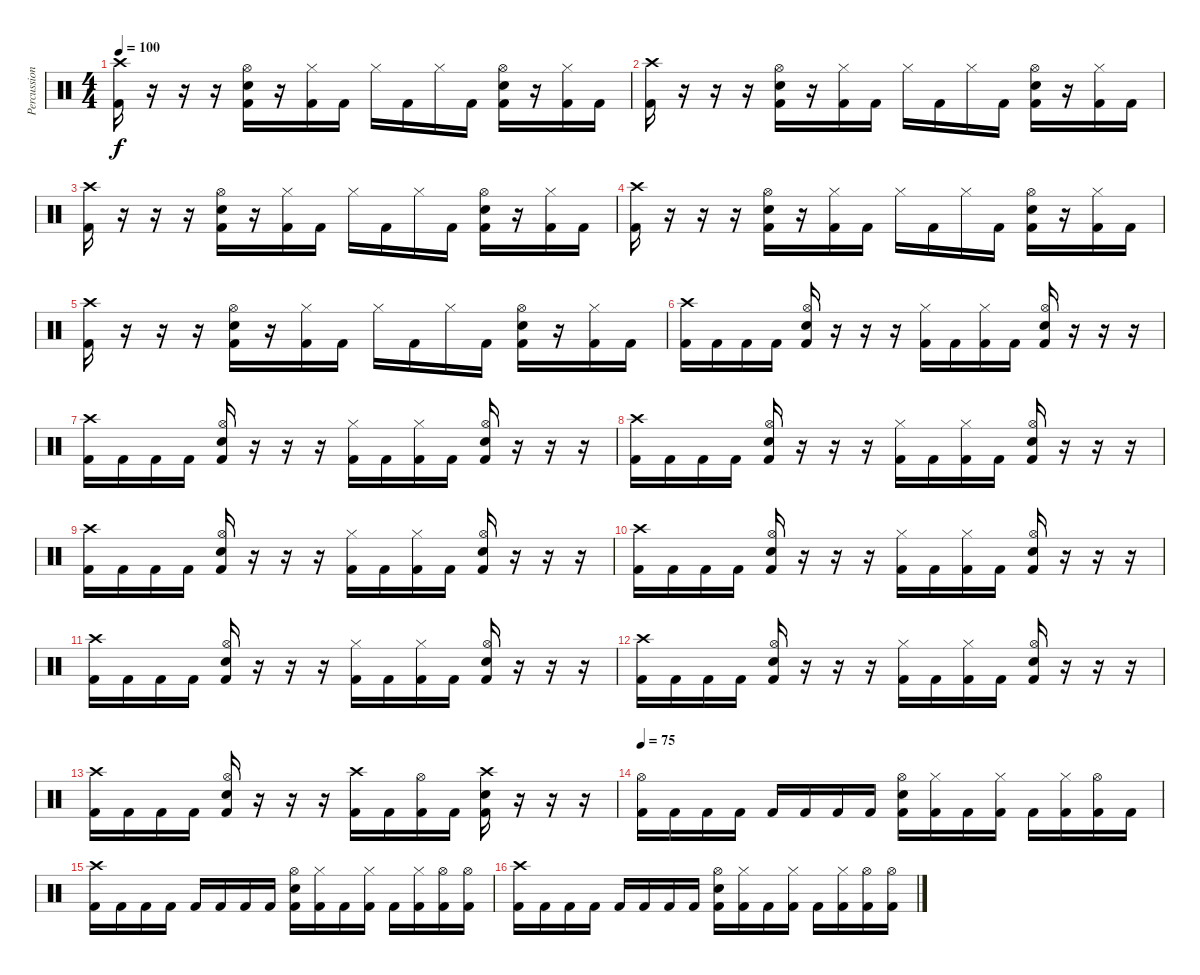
\track ("Percussions" "Percussion") {instrument percussion}
\staff {score}
\articulation defaults
\ts (4 4)
\tempo 100
\clef neutral
\ks c
("Crash high (hit)" "Kick (hit) 2").16{dy f} r.16 r.16 r.16 ("Hi-Hat (open)" "Kick (hit) 2" "Snare (hit) 2").16 r.16 ("Hi-Hat (closed)" "Kick (hit) 2").16 "Kick (hit) 2".16 "Hi-Hat (closed)".16 "Kick (hit) 2".16 "Hi-Hat (closed)".16 "Kick (hit) 2".16 ("Hi-Hat (open)" "Kick (hit) 2" "Snare (hit) 2").16 r.16 ("Hi-Hat (closed)" "Kick (hit) 2").16 "Kick (hit) 2".16 |
("Crash high (hit)" "Kick (hit) 2").16 r.16 r.16 r.16 ("Hi-Hat (open)" "Kick (hit) 2" "Snare (hit) 2").16 r.16 ("Hi-Hat (closed)" "Kick (hit) 2").16 "Kick (hit) 2".16 "Hi-Hat (closed)".16 "Kick (hit) 2".16 "Hi-Hat (closed)".16 "Kick (hit) 2".16 ("Hi-Hat (open)" "Kick (hit) 2" "Snare (hit) 2").16 r.16 ("Hi-Hat (closed)" "Kick (hit) 2").16 "Kick (hit) 2".16 |
("Crash high (hit)" "Kick (hit) 2").16 r.16 r.16 r.16 ("Hi-Hat (open)" "Kick (hit) 2" "Snare (hit) 2").16 r.16 ("Hi-Hat (closed)" "Kick (hit) 2").16 "Kick (hit) 2".16 "Hi-Hat (closed)".16 "Kick (hit) 2".16 "Hi-Hat (closed)".16 "Kick (hit) 2".16 ("Hi-Hat (open)" "Kick (hit) 2" "Snare (hit) 2").16 r.16 ("Hi-Hat (closed)" "Kick (hit) 2").16 "Kick (hit) 2".16 |
("Crash high (hit)" "Kick (hit) 2").16 r.16 r.16 r.16 ("Hi-Hat (open)" "Kick (hit) 2" "Snare (hit) 2").16 r.16 ("Hi-Hat (closed)" "Kick (hit) 2").16 "Kick (hit) 2".16 "Hi-Hat (closed)".16 "Kick (hit) 2".16 "Hi-Hat (closed)".16 "Kick (hit) 2".16 ("Hi-Hat (open)" "Kick (hit) 2" "Snare (hit) 2").16 r.16 ("Hi-Hat (closed)" "Kick (hit) 2").16 "Kick (hit) 2".16 |
("Crash high (hit)" "Kick (hit) 2").16 r.16 r.16 r.16 ("Hi-Hat (open)" "Kick (hit) 2" "Snare (hit) 2").16 r.16 ("Hi-Hat (closed)" "Kick (hit) 2").16 "Kick (hit) 2".16 "Hi-Hat (closed)".16 "Kick (hit) 2".16 "Hi-Hat (closed)".16 "Kick (hit) 2".16 ("Hi-Hat (open)" "Kick (hit) 2" "Snare (hit) 2").16 r.16 ("Hi-Hat (closed)" "Kick (hit) 2").16 "Kick (hit) 2".16 |
("Crash high (hit)" "Kick (hit) 2").16 "Kick (hit) 2".16 "Kick (hit) 2".16 "Kick (hit) 2".16 ("Hi-Hat (open)" "Kick (hit) 2" "Snare (hit) 2").16 r.16 r.16 r.16 ("Hi-Hat (closed)" "Kick (hit) 2").16 "Kick (hit) 2".16 ("Hi-Hat (closed)" "Kick (hit) 2").16 "Kick (hit) 2".16 ("Hi-Hat (open)" "Kick (hit) 2" "Snare (hit) 2").16 r.16 r.16 r.16 |
("Crash high (hit)" "Kick (hit) 2").16 "Kick (hit) 2".16 "Kick (hit) 2".16 "Kick (hit) 2".16 ("Hi-Hat (open)" "Kick (hit) 2" "Snare (hit) 2").16 r.16 r.16 r.16 ("Hi-Hat (closed)" "Kick (hit) 2").16 "Kick (hit) 2".16 ("Hi-Hat (closed)" "Kick (hit) 2").16 "Kick (hit) 2".16 ("Hi-Hat (open)" "Kick (hit) 2" "Snare (hit) 2").16 r.16 r.16 r.16 |
("Crash high (hit)" "Kick (hit) 2").16 "Kick (hit) 2".16 "Kick (hit) 2".16 "Kick (hit) 2".16 ("Hi-Hat (open)" "Kick (hit) 2" "Snare (hit) 2").16 r.16 r.16 r.16 ("Hi-Hat (closed)" "Kick (hit) 2").16 "Kick (hit) 2".16 ("Hi-Hat (closed)" "Kick (hit) 2").16 "Kick (hit) 2".16 ("Hi-Hat (open)" "Kick (hit) 2" "Snare (hit) 2").16 r.16 r.16 r.16 |
("Crash high (hit)" "Kick (hit) 2").16 "Kick (hit) 2".16 "Kick (hit) 2".16 "Kick (hit) 2".16 ("Hi-Hat (open)" "Kick (hit) 2" "Snare (hit) 2").16 r.16 r.16 r.16 ("Hi-Hat (closed)" "Kick (hit) 2").16 "Kick (hit) 2".16 ("Hi-Hat (closed)" "Kick (hit) 2").16 "Kick (hit) 2".16 ("Hi-Hat (open)" "Kick (hit) 2" "Snare (hit) 2").16 r.16 r.16 r.16 |
("Crash high (hit)" "Kick (hit) 2").16 "Kick (hit) 2".16 "Kick (hit) 2".16 "Kick (hit) 2".16 ("Hi-Hat (open)" "Kick (hit) 2" "Snare (hit) 2").16 r.16 r.16 r.16 ("Hi-Hat (closed)" "Kick (hit) 2").16 "Kick (hit) 2".16 ("Hi-Hat (closed)" "Kick (hit) 2").16 "Kick (hit) 2".16 ("Hi-Hat (open)" "Kick (hit) 2" "Snare (hit) 2").16 r.16 r.16 r.16 |
("Crash high (hit)" "Kick (hit) 2").16 "Kick (hit) 2".16 "Kick (hit) 2".16 "Kick (hit) 2".16 ("Hi-Hat (open)" "Kick (hit) 2" "Snare (hit) 2").16 r.16 r.16 r.16 ("Hi-Hat (closed)" "Kick (hit) 2").16 "Kick (hit) 2".16 ("Hi-Hat (closed)" "Kick (hit) 2").16 "Kick (hit) 2".16 ("Hi-Hat (open)" "Kick (hit) 2" "Snare (hit) 2").16 r.16 r.16 r.16 |
("Crash high (hit)" "Kick (hit) 2").16 "Kick (hit) 2".16 "Kick (hit) 2".16 "Kick (hit) 2".16 ("Hi-Hat (open)" "Kick (hit) 2" "Snare (hit) 2").16 r.16 r.16 r.16 ("Hi-Hat (closed)" "Kick (hit) 2").16 "Kick (hit) 2".16 ("Hi-Hat (closed)" "Kick (hit) 2").16 "Kick (hit) 2".16 ("Hi-Hat (open)" "Kick (hit) 2" "Snare (hit) 2").16 r.16 r.16 r.16 |
("Crash high (hit)" "Kick (hit) 2").16 "Kick (hit) 2".16 "Kick (hit) 2".16 "Kick (hit) 2".16 ("Hi-Hat (open)" "Kick (hit) 2" "Snare (hit) 2").16 r.16 r.16 r.16 ("Crash high (hit)" "Kick (hit) 2").16 "Kick (hit) 2".16 ("Hi-Hat (open)" "Kick (hit) 2").16 "Kick (hit) 2".16 ("Crash high (hit)" "Kick (hit) 2" "Snare (hit) 2").16 r.16 r.16 r.16 |
\tempo 75
("Hi-Hat (open)" "Kick (hit) 2").16 "Kick (hit) 2".16 "Kick (hit) 2".16 "Kick (hit) 2".16 "Kick (hit) 2".16 "Kick (hit) 2".16 "Kick (hit) 2".16 "Kick (hit) 2".16 ("Hi-Hat (open)" "Kick (hit) 2" "Snare (hit) 2").16 ("Hi-Hat (closed)" "Kick (hit) 2").16 "Kick (hit) 2".16 ("Hi-Hat (closed)" "Kick (hit) 2").16 "Kick (hit) 2".16 ("Hi-Hat (closed)" "Kick (hit) 2").16 ("Hi-Hat (open)" "Kick (hit) 2").16 "Kick (hit) 2".16 |
("Crash high (hit)" "Kick (hit) 2").16 "Kick (hit) 2".16 "Kick (hit) 2".16 "Kick (hit) 2".16 "Kick (hit) 2".16 "Kick (hit) 2".16 "Kick (hit) 2".16 "Kick (hit) 2".16 ("Hi-Hat (open)" "Kick (hit) 2" "Snare (hit) 2").16 ("Hi-Hat (closed)" "Kick (hit) 2").16 "Kick (hit) 2".16 ("Hi-Hat (closed)" "Kick (hit) 2").16 "Kick (hit) 2".16 ("Hi-Hat (closed)" "Kick (hit) 2").16 ("Hi-Hat (open)" "Kick (hit) 2").16 ("Hi-Hat (open)" "Kick (hit) 2").16 |
("Crash high (hit)" "Kick (hit) 2").16 "Kick (hit) 2".16 "Kick (hit) 2".16 "Kick (hit) 2".16 "Kick (hit) 2".16 "Kick (hit) 2".16 "Kick (hit) 2".16 "Kick (hit) 2".16 ("Hi-Hat (open)" "Kick (hit) 2" "Snare (hit) 2").16 ("Hi-Hat (closed)" "Kick (hit) 2").16 "Kick (hit) 2".16 ("Hi-Hat (closed)" "Kick (hit) 2").16 "Kick (hit) 2".16 ("Hi-Hat (closed)" "Kick (hit) 2").16 ("Hi-Hat (open)" "Kick (hit) 2").16 ("Hi-Hat (open)" "Kick (hit) 2").16
